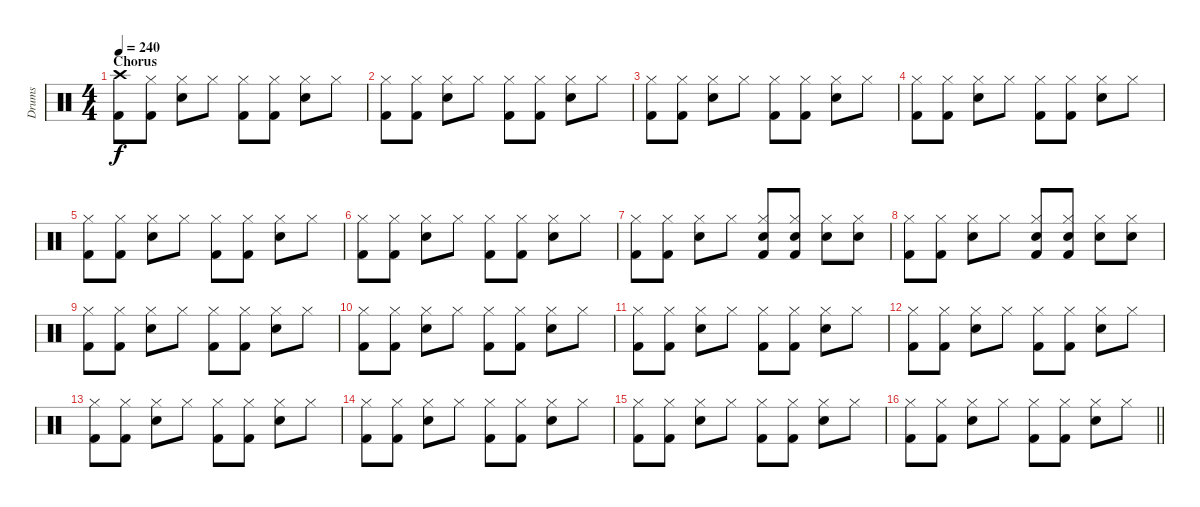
\track ("Drums" "Drums") {instrument percussion}
\staff {score}
\articulation defaults
\ts (4 4)
\section ("" "Chorus")
\tempo 240
\clef neutral
\ks c
("Crash high (hit)" "Kick (hit) 2").8{dy f} ("Hi-Hat (closed)" "Kick (hit) 2").8 ("Hi-Hat (closed)" "Snare (hit) 2").8 "Hi-Hat (closed)".8 ("Hi-Hat (closed)" "Kick (hit) 2").8 ("Hi-Hat (closed)" "Kick (hit) 2").8 ("Hi-Hat (closed)" "Snare (hit) 2").8 "Hi-Hat (closed)".8 |
("Hi-Hat (closed)" "Kick (hit) 2").8 ("Hi-Hat (closed)" "Kick (hit) 2").8 ("Hi-Hat (closed)" "Snare (hit) 2").8 "Hi-Hat (closed)".8 ("Hi-Hat (closed)" "Kick (hit) 2").8 ("Hi-Hat (closed)" "Kick (hit) 2").8 ("Hi-Hat (closed)" "Snare (hit) 2").8 "Hi-Hat (closed)".8 |
("Hi-Hat (closed)" "Kick (hit) 2").8 ("Hi-Hat (closed)" "Kick (hit) 2").8 ("Hi-Hat (closed)" "Snare (hit) 2").8 "Hi-Hat (closed)".8 ("Hi-Hat (closed)" "Kick (hit) 2").8 ("Hi-Hat (closed)" "Kick (hit) 2").8 ("Hi-Hat (closed)" "Snare (hit) 2").8 "Hi-Hat (closed)".8 |
("Hi-Hat (closed)" "Kick (hit) 2").8 ("Hi-Hat (closed)" "Kick (hit) 2").8 ("Hi-Hat (closed)" "Snare (hit) 2").8 "Hi-Hat (closed)".8 ("Hi-Hat (closed)" "Kick (hit) 2").8 ("Hi-Hat (closed)" "Kick (hit) 2").8 ("Hi-Hat (closed)" "Snare (hit) 2").8 "Hi-Hat (closed)".8 |
("Hi-Hat (closed)" "Kick (hit) 2").8 ("Hi-Hat (closed)" "Kick (hit) 2").8 ("Hi-Hat (closed)" "Snare (hit) 2").8 "Hi-Hat (closed)".8 ("Hi-Hat (closed)" "Kick (hit) 2").8 ("Hi-Hat (closed)" "Kick (hit) 2").8 ("Hi-Hat (closed)" "Snare (hit) 2").8 "Hi-Hat (closed)".8 |
("Hi-Hat (closed)" "Kick (hit) 2").8 ("Hi-Hat (closed)" "Kick (hit) 2").8 ("Hi-Hat (closed)" "Snare (hit) 2").8 "Hi-Hat (closed)".8 ("Hi-Hat (closed)" "Kick (hit) 2").8 ("Hi-Hat (closed)" "Kick (hit) 2").8 ("Hi-Hat (closed)" "Snare (hit) 2").8 "Hi-Hat (closed)".8 |
("Hi-Hat (closed)" "Kick (hit) 2").8 ("Hi-Hat (closed)" "Kick (hit) 2").8 ("Hi-Hat (closed)" "Snare (hit) 2").8 "Hi-Hat (closed)".8 ("Hi-Hat (closed)" "Snare (hit) 2" "Kick (hit) 2").8 ("Hi-Hat (closed)" "Snare (hit) 2" "Kick (hit) 2").8 ("Hi-Hat (closed)" "Snare (hit) 2").8 ("Hi-Hat (closed)" "Snare (hit) 2").8 |
("Hi-Hat (closed)" "Kick (hit) 2").8 ("Hi-Hat (closed)" "Kick (hit) 2").8 ("Hi-Hat (closed)" "Snare (hit) 2").8 "Hi-Hat (closed)".8 ("Hi-Hat (closed)" "Snare (hit) 2" "Kick (hit) 2").8 ("Hi-Hat (closed)" "Snare (hit) 2" "Kick (hit) 2").8 ("Hi-Hat (closed)" "Snare (hit) 2").8 ("Hi-Hat (closed)" "Snare (hit) 2").8 |
("Hi-Hat (closed)" "Kick (hit) 2").8 ("Hi-Hat (closed)" "Kick (hit) 2").8 ("Hi-Hat (closed)" "Snare (hit) 2").8 "Hi-Hat (closed)".8 ("Hi-Hat (closed)" "Kick (hit) 2").8 ("Hi-Hat (closed)" "Kick (hit) 2").8 ("Hi-Hat (closed)" "Snare (hit) 2").8 "Hi-Hat (closed)".8 |
("Hi-Hat (closed)" "Kick (hit) 2").8 ("Hi-Hat (closed)" "Kick (hit) 2").8 ("Hi-Hat (closed)" "Snare (hit) 2").8 "Hi-Hat (closed)".8 ("Hi-Hat (closed)" "Kick (hit) 2").8 ("Hi-Hat (closed)" "Kick (hit) 2").8 ("Hi-Hat (closed)" "Snare (hit) 2").8 "Hi-Hat (closed)".8 |
("Hi-Hat (closed)" "Kick (hit) 2").8 ("Hi-Hat (closed)" "Kick (hit) 2").8 ("Hi-Hat (closed)" "Snare (hit) 2").8 "Hi-Hat (closed)".8 ("Hi-Hat (closed)" "Kick (hit) 2").8 ("Hi-Hat (closed)" "Kick (hit) 2").8 ("Hi-Hat (closed)" "Snare (hit) 2").8 "Hi-Hat (closed)".8 |
("Hi-Hat (closed)" "Kick (hit) 2").8 ("Hi-Hat (closed)" "Kick (hit) 2").8 ("Hi-Hat (closed)" "Snare (hit) 2").8 "Hi-Hat (closed)".8 ("Hi-Hat (closed)" "Kick (hit) 2").8 ("Hi-Hat (closed)" "Kick (hit) 2").8 ("Hi-Hat (closed)" "Snare (hit) 2").8 "Hi-Hat (closed)".8 |
("Hi-Hat (closed)" "Kick (hit) 2").8 ("Hi-Hat (closed)" "Kick (hit) 2").8 ("Hi-Hat (closed)" "Snare (hit) 2").8 "Hi-Hat (closed)".8 ("Hi-Hat (closed)" "Kick (hit) 2").8 ("Hi-Hat (closed)" "Kick (hit) 2").8 ("Hi-Hat (closed)" "Snare (hit) 2").8 "Hi-Hat (closed)".8 |
("Hi-Hat (closed)" "Kick (hit) 2").8 ("Hi-Hat (closed)" "Kick (hit) 2").8 ("Hi-Hat (closed)" "Snare (hit) 2").8 "Hi-Hat (closed)".8 ("Hi-Hat (closed)" "Kick (hit) 2").8 ("Hi-Hat (closed)" "Kick (hit) 2").8 ("Hi-Hat (closed)" "Snare (hit) 2").8 "Hi-Hat (closed)".8 |
("Hi-Hat (closed)" "Kick (hit) 2").8 ("Hi-Hat (closed)" "Kick (hit) 2").8 ("Hi-Hat (closed)" "Snare (hit) 2").8 "Hi-Hat (closed)".8 ("Hi-Hat (closed)" "Kick (hit) 2").8 ("Hi-Hat (closed)" "Kick (hit) 2").8 ("Hi-Hat (closed)" "Snare (hit) 2").8 "Hi-Hat (closed)".8 |
\barLineRight lightlight
("Hi-Hat (closed)" "Kick (hit) 2").8 ("Hi-Hat (closed)" "Kick (hit) 2").8 ("Hi-Hat (closed)" "Snare (hit) 2").8 "Hi-Hat (closed)".8 ("Hi-Hat (closed)" "Kick (hit) 2").8 ("Hi-Hat (closed)" "Kick (hit) 2").8 ("Hi-Hat (closed)" "Snare (hit) 2").8 "Hi-Hat (closed)".8
